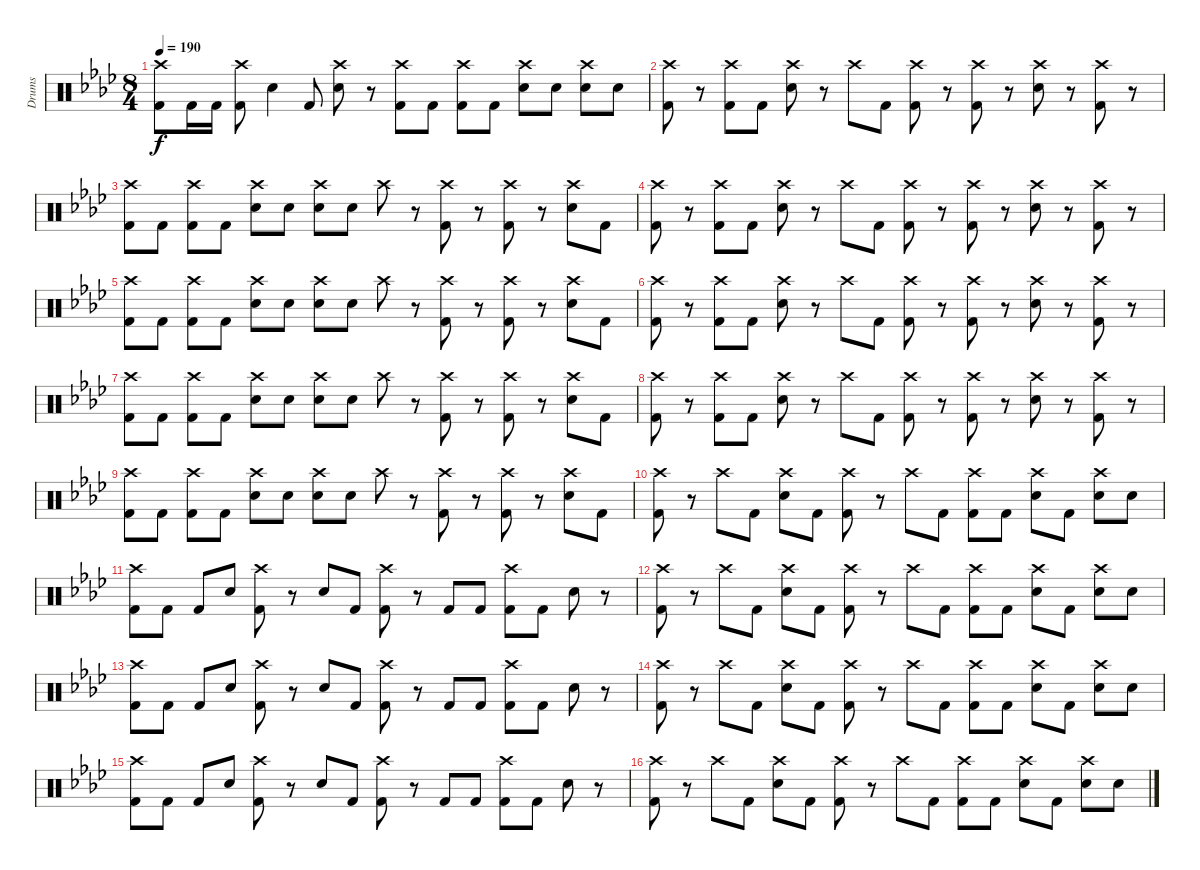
\track ("Drums" "Drums") {instrument percussion}
\staff {score}
\articulation defaults
\ts (8 4)
\tempo 190
\clef neutral
\ks ab
("Crash high (hit)" "Kick (hit) 2").8{dy f} "Kick (hit) 2".16 "Kick (hit) 2".16 ("Crash high (hit)" "Kick (hit) 2").8 "Snare (hit) 2".4 "Kick (hit) 2".8 ("Crash high (hit)" "Snare (hit) 2").8 r.8 ("Crash high (hit)" "Kick (hit) 2").8 "Kick (hit) 2".8 ("Crash high (hit)" "Kick (hit) 2").8 "Kick (hit) 2".8 ("Crash high (hit)" "Snare (hit) 2").8 "Snare (hit) 2".8 ("Crash high (hit)" "Snare (hit) 2").8 "Snare (hit) 2".8 |
("Crash high (hit)" "Kick (hit) 2").8 r.8 ("Crash high (hit)" "Kick (hit) 2").8 "Kick (hit) 2".8 ("Crash high (hit)" "Snare (hit) 2").8 r.8 "Crash high (hit)".8 "Kick (hit) 2".8 ("Crash high (hit)" "Kick (hit) 2").8 r.8 ("Crash high (hit)" "Kick (hit) 2").8 r.8 ("Crash high (hit)" "Snare (hit) 2").8 r.8 ("Crash high (hit)" "Kick (hit) 2").8 r.8 |
("Crash high (hit)" "Kick (hit) 2").8 "Kick (hit) 2".8 ("Crash high (hit)" "Kick (hit) 2").8 "Kick (hit) 2".8 ("Crash high (hit)" "Snare (hit) 2").8 "Snare (hit) 2".8 ("Crash high (hit)" "Snare (hit) 2").8 "Snare (hit) 2".8 "Crash high (hit)".8 r.8 ("Crash high (hit)" "Kick (hit) 2").8 r.8 ("Crash high (hit)" "Kick (hit) 2").8 r.8 ("Crash high (hit)" "Snare (hit) 2").8 "Kick (hit) 2".8 |
("Crash high (hit)" "Kick (hit) 2").8 r.8 ("Crash high (hit)" "Kick (hit) 2").8 "Kick (hit) 2".8 ("Crash high (hit)" "Snare (hit) 2").8 r.8 "Crash high (hit)".8 "Kick (hit) 2".8 ("Crash high (hit)" "Kick (hit) 2").8 r.8 ("Crash high (hit)" "Kick (hit) 2").8 r.8 ("Crash high (hit)" "Snare (hit) 2").8 r.8 ("Crash high (hit)" "Kick (hit) 2").8 r.8 |
("Crash high (hit)" "Kick (hit) 2").8 "Kick (hit) 2".8 ("Crash high (hit)" "Kick (hit) 2").8 "Kick (hit) 2".8 ("Crash high (hit)" "Snare (hit) 2").8 "Snare (hit) 2".8 ("Crash high (hit)" "Snare (hit) 2").8 "Snare (hit) 2".8 "Crash high (hit)".8 r.8 ("Crash high (hit)" "Kick (hit) 2").8 r.8 ("Crash high (hit)" "Kick (hit) 2").8 r.8 ("Crash high (hit)" "Snare (hit) 2").8 "Kick (hit) 2".8 |
("Crash high (hit)" "Kick (hit) 2").8 r.8 ("Crash high (hit)" "Kick (hit) 2").8 "Kick (hit) 2".8 ("Crash high (hit)" "Snare (hit) 2").8 r.8 "Crash high (hit)".8 "Kick (hit) 2".8 ("Crash high (hit)" "Kick (hit) 2").8 r.8 ("Crash high (hit)" "Kick (hit) 2").8 r.8 ("Crash high (hit)" "Snare (hit) 2").8 r.8 ("Crash high (hit)" "Kick (hit) 2").8 r.8 |
("Crash high (hit)" "Kick (hit) 2").8 "Kick (hit) 2".8 ("Crash high (hit)" "Kick (hit) 2").8 "Kick (hit) 2".8 ("Crash high (hit)" "Snare (hit) 2").8 "Snare (hit) 2".8 ("Crash high (hit)" "Snare (hit) 2").8 "Snare (hit) 2".8 "Crash high (hit)".8 r.8 ("Crash high (hit)" "Kick (hit) 2").8 r.8 ("Crash high (hit)" "Kick (hit) 2").8 r.8 ("Crash high (hit)" "Snare (hit) 2").8 "Kick (hit) 2".8 |
("Crash high (hit)" "Kick (hit) 2").8 r.8 ("Crash high (hit)" "Kick (hit) 2").8 "Kick (hit) 2".8 ("Crash high (hit)" "Snare (hit) 2").8 r.8 "Crash high (hit)".8 "Kick (hit) 2".8 ("Crash high (hit)" "Kick (hit) 2").8 r.8 ("Crash high (hit)" "Kick (hit) 2").8 r.8 ("Crash high (hit)" "Snare (hit) 2").8 r.8 ("Crash high (hit)" "Kick (hit) 2").8 r.8 |
("Crash high (hit)" "Kick (hit) 2").8 "Kick (hit) 2".8 ("Crash high (hit)" "Kick (hit) 2").8 "Kick (hit) 2".8 ("Crash high (hit)" "Snare (hit) 2").8 "Snare (hit) 2".8 ("Crash high (hit)" "Snare (hit) 2").8 "Snare (hit) 2".8 "Crash high (hit)".8 r.8 ("Crash high (hit)" "Kick (hit) 2").8 r.8 ("Crash high (hit)" "Kick (hit) 2").8 r.8 ("Crash high (hit)" "Snare (hit) 2").8 "Kick (hit) 2".8 |
("Crash high (hit)" "Kick (hit) 2").8 r.8 "Crash high (hit)".8 "Kick (hit) 2".8 ("Crash high (hit)" "Snare (hit) 2").8 "Kick (hit) 2".8 ("Crash high (hit)" "Kick (hit) 2").8 r.8 "Crash high (hit)".8 "Kick (hit) 2".8 ("Crash high (hit)" "Kick (hit) 2").8 "Kick (hit) 2".8 ("Crash high (hit)" "Snare (hit) 2").8 "Kick (hit) 2".8 ("Crash high (hit)" "Snare (hit) 2").8 "Snare (hit) 2".8 |
("Crash high (hit)" "Kick (hit) 2").8 "Kick (hit) 2".8 "Kick (hit) 2".8 "Snare (hit) 2".8 ("Crash high (hit)" "Kick (hit) 2").8 r.8 "Snare (hit) 2".8 "Kick (hit) 2".8 ("Crash high (hit)" "Kick (hit) 2").8 r.8 "Kick (hit) 2".8 "Kick (hit) 2".8 ("Crash high (hit)" "Kick (hit) 2").8 "Kick (hit) 2".8 "Snare (hit) 2".8 r.8 |
("Crash high (hit)" "Kick (hit) 2").8 r.8 "Crash high (hit)".8 "Kick (hit) 2".8 ("Crash high (hit)" "Snare (hit) 2").8 "Kick (hit) 2".8 ("Crash high (hit)" "Kick (hit) 2").8 r.8 "Crash high (hit)".8 "Kick (hit) 2".8 ("Crash high (hit)" "Kick (hit) 2").8 "Kick (hit) 2".8 ("Crash high (hit)" "Snare (hit) 2").8 "Kick (hit) 2".8 ("Crash high (hit)" "Snare (hit) 2").8 "Snare (hit) 2".8 |
("Crash high (hit)" "Kick (hit) 2").8 "Kick (hit) 2".8 "Kick (hit) 2".8 "Snare (hit) 2".8 ("Crash high (hit)" "Kick (hit) 2").8 r.8 "Snare (hit) 2".8 "Kick (hit) 2".8 ("Crash high (hit)" "Kick (hit) 2").8 r.8 "Kick (hit) 2".8 "Kick (hit) 2".8 ("Crash high (hit)" "Kick (hit) 2").8 "Kick (hit) 2".8 "Snare (hit) 2".8 r.8 |
("Crash high (hit)" "Kick (hit) 2").8 r.8 "Crash high (hit)".8 "Kick (hit) 2".8 ("Crash high (hit)" "Snare (hit) 2").8 "Kick (hit) 2".8 ("Crash high (hit)" "Kick (hit) 2").8 r.8 "Crash high (hit)".8 "Kick (hit) 2".8 ("Crash high (hit)" "Kick (hit) 2").8 "Kick (hit) 2".8 ("Crash high (hit)" "Snare (hit) 2").8 "Kick (hit) 2".8 ("Crash high (hit)" "Snare (hit) 2").8 "Snare (hit) 2".8 |
("Crash high (hit)" "Kick (hit) 2").8 "Kick (hit) 2".8 "Kick (hit) 2".8 "Snare (hit) 2".8 ("Crash high (hit)" "Kick (hit) 2").8 r.8 "Snare (hit) 2".8 "Kick (hit) 2".8 ("Crash high (hit)" "Kick (hit) 2").8 r.8 "Kick (hit) 2".8 "Kick (hit) 2".8 ("Crash high (hit)" "Kick (hit) 2").8 "Kick (hit) 2".8 "Snare (hit) 2".8 r.8 |
("Crash high (hit)" "Kick (hit) 2").8 r.8 "Crash high (hit)".8 "Kick (hit) 2".8 ("Crash high (hit)" "Snare (hit) 2").8 "Kick (hit) 2".8 ("Crash high (hit)" "Kick (hit) 2").8 r.8 "Crash high (hit)".8 "Kick (hit) 2".8 ("Crash high (hit)" "Kick (hit) 2").8 "Kick (hit) 2".8 ("Crash high (hit)" "Snare (hit) 2").8 "Kick (hit) 2".8 ("Crash high (hit)" "Snare (hit) 2").8 "Snare (hit) 2".8
